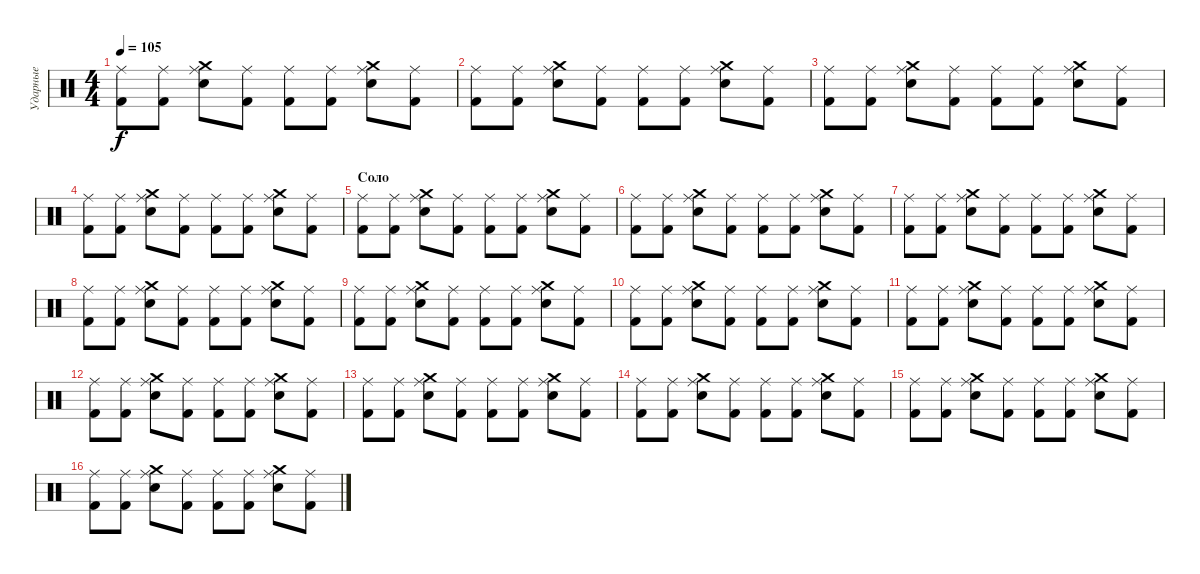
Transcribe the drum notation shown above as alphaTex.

\track ("Ударные" "Ударные") {instrument percussion}
\staff {score}
\articulation defaults
\ts (4 4)
\tempo 105
\clef neutral
\ks c
("Ride (middle)" "Kick (hit) 2").8{dy f} ("Ride (middle)" "Kick (hit) 2").8 ("Crash medium (hit)" "Ride (middle)" "Electric Snare (hit)").8 ("Ride (middle)" "Kick (hit) 2").8 ("Ride (middle)" "Kick (hit) 2").8 ("Ride (middle)" "Kick (hit) 2").8 ("Crash medium (hit)" "Ride (middle)" "Electric Snare (hit)").8 ("Ride (middle)" "Kick (hit) 2").8 |
("Ride (middle)" "Kick (hit) 2").8 ("Ride (middle)" "Kick (hit) 2").8 ("Crash medium (hit)" "Ride (middle)" "Electric Snare (hit)").8 ("Ride (middle)" "Kick (hit) 2").8 ("Ride (middle)" "Kick (hit) 2").8 ("Ride (middle)" "Kick (hit) 2").8 ("Crash medium (hit)" "Ride (middle)" "Electric Snare (hit)").8 ("Ride (middle)" "Kick (hit) 2").8 |
("Ride (middle)" "Kick (hit) 2").8 ("Ride (middle)" "Kick (hit) 2").8 ("Crash medium (hit)" "Ride (middle)" "Electric Snare (hit)").8 ("Ride (middle)" "Kick (hit) 2").8 ("Ride (middle)" "Kick (hit) 2").8 ("Ride (middle)" "Kick (hit) 2").8 ("Crash medium (hit)" "Ride (middle)" "Electric Snare (hit)").8 ("Ride (middle)" "Kick (hit) 2").8 |
("Ride (middle)" "Kick (hit) 2").8 ("Ride (middle)" "Kick (hit) 2").8 ("Crash medium (hit)" "Ride (middle)" "Electric Snare (hit)").8 ("Ride (middle)" "Kick (hit) 2").8 ("Ride (middle)" "Kick (hit) 2").8 ("Ride (middle)" "Kick (hit) 2").8 ("Crash medium (hit)" "Ride (middle)" "Electric Snare (hit)").8 ("Ride (middle)" "Kick (hit) 2").8 |
\section ("" "Соло")
("Ride (middle)" "Kick (hit) 2").8 ("Ride (middle)" "Kick (hit) 2").8 ("Crash medium (hit)" "Ride (middle)" "Electric Snare (hit)").8 ("Ride (middle)" "Kick (hit) 2").8 ("Ride (middle)" "Kick (hit) 2").8 ("Ride (middle)" "Kick (hit) 2").8 ("Crash medium (hit)" "Ride (middle)" "Electric Snare (hit)").8 ("Ride (middle)" "Kick (hit) 2").8 |
("Ride (middle)" "Kick (hit) 2").8 ("Ride (middle)" "Kick (hit) 2").8 ("Crash medium (hit)" "Ride (middle)" "Electric Snare (hit)").8 ("Ride (middle)" "Kick (hit) 2").8 ("Ride (middle)" "Kick (hit) 2").8 ("Ride (middle)" "Kick (hit) 2").8 ("Crash medium (hit)" "Ride (middle)" "Electric Snare (hit)").8 ("Ride (middle)" "Kick (hit) 2").8 |
("Ride (middle)" "Kick (hit) 2").8 ("Ride (middle)" "Kick (hit) 2").8 ("Crash medium (hit)" "Ride (middle)" "Electric Snare (hit)").8 ("Ride (middle)" "Kick (hit) 2").8 ("Ride (middle)" "Kick (hit) 2").8 ("Ride (middle)" "Kick (hit) 2").8 ("Crash medium (hit)" "Ride (middle)" "Electric Snare (hit)").8 ("Ride (middle)" "Kick (hit) 2").8 |
("Ride (middle)" "Kick (hit) 2").8 ("Ride (middle)" "Kick (hit) 2").8 ("Crash medium (hit)" "Ride (middle)" "Electric Snare (hit)").8 ("Ride (middle)" "Kick (hit) 2").8 ("Ride (middle)" "Kick (hit) 2").8 ("Ride (middle)" "Kick (hit) 2").8 ("Crash medium (hit)" "Ride (middle)" "Electric Snare (hit)").8 ("Ride (middle)" "Kick (hit) 2").8 |
("Ride (middle)" "Kick (hit) 2").8 ("Ride (middle)" "Kick (hit) 2").8 ("Crash medium (hit)" "Ride (middle)" "Electric Snare (hit)").8 ("Ride (middle)" "Kick (hit) 2").8 ("Ride (middle)" "Kick (hit) 2").8 ("Ride (middle)" "Kick (hit) 2").8 ("Crash medium (hit)" "Ride (middle)" "Electric Snare (hit)").8 ("Ride (middle)" "Kick (hit) 2").8 |
("Ride (middle)" "Kick (hit) 2").8 ("Ride (middle)" "Kick (hit) 2").8 ("Crash medium (hit)" "Ride (middle)" "Electric Snare (hit)").8 ("Ride (middle)" "Kick (hit) 2").8 ("Ride (middle)" "Kick (hit) 2").8 ("Ride (middle)" "Kick (hit) 2").8 ("Crash medium (hit)" "Ride (middle)" "Electric Snare (hit)").8 ("Ride (middle)" "Kick (hit) 2").8 |
("Ride (middle)" "Kick (hit) 2").8 ("Ride (middle)" "Kick (hit) 2").8 ("Crash medium (hit)" "Ride (middle)" "Electric Snare (hit)").8 ("Ride (middle)" "Kick (hit) 2").8 ("Ride (middle)" "Kick (hit) 2").8 ("Ride (middle)" "Kick (hit) 2").8 ("Crash medium (hit)" "Ride (middle)" "Electric Snare (hit)").8 ("Ride (middle)" "Kick (hit) 2").8 |
("Ride (middle)" "Kick (hit) 2").8 ("Ride (middle)" "Kick (hit) 2").8 ("Crash medium (hit)" "Ride (middle)" "Electric Snare (hit)").8 ("Ride (middle)" "Kick (hit) 2").8 ("Ride (middle)" "Kick (hit) 2").8 ("Ride (middle)" "Kick (hit) 2").8 ("Crash medium (hit)" "Ride (middle)" "Electric Snare (hit)").8 ("Ride (middle)" "Kick (hit) 2").8 |
("Ride (middle)" "Kick (hit) 2").8 ("Ride (middle)" "Kick (hit) 2").8 ("Crash medium (hit)" "Ride (middle)" "Electric Snare (hit)").8 ("Ride (middle)" "Kick (hit) 2").8 ("Ride (middle)" "Kick (hit) 2").8 ("Ride (middle)" "Kick (hit) 2").8 ("Crash medium (hit)" "Ride (middle)" "Electric Snare (hit)").8 ("Ride (middle)" "Kick (hit) 2").8 |
("Ride (middle)" "Kick (hit) 2").8 ("Ride (middle)" "Kick (hit) 2").8 ("Crash medium (hit)" "Ride (middle)" "Electric Snare (hit)").8 ("Ride (middle)" "Kick (hit) 2").8 ("Ride (middle)" "Kick (hit) 2").8 ("Ride (middle)" "Kick (hit) 2").8 ("Crash medium (hit)" "Ride (middle)" "Electric Snare (hit)").8 ("Ride (middle)" "Kick (hit) 2").8 |
("Ride (middle)" "Kick (hit) 2").8 ("Ride (middle)" "Kick (hit) 2").8 ("Crash medium (hit)" "Ride (middle)" "Electric Snare (hit)").8 ("Ride (middle)" "Kick (hit) 2").8 ("Ride (middle)" "Kick (hit) 2").8 ("Ride (middle)" "Kick (hit) 2").8 ("Crash medium (hit)" "Ride (middle)" "Electric Snare (hit)").8 ("Ride (middle)" "Kick (hit) 2").8 |
("Ride (middle)" "Kick (hit) 2").8 ("Ride (middle)" "Kick (hit) 2").8 ("Crash medium (hit)" "Ride (middle)" "Electric Snare (hit)").8 ("Ride (middle)" "Kick (hit) 2").8 ("Ride (middle)" "Kick (hit) 2").8 ("Ride (middle)" "Kick (hit) 2").8 ("Crash medium (hit)" "Ride (middle)" "Electric Snare (hit)").8 ("Ride (middle)" "Kick (hit) 2").8
